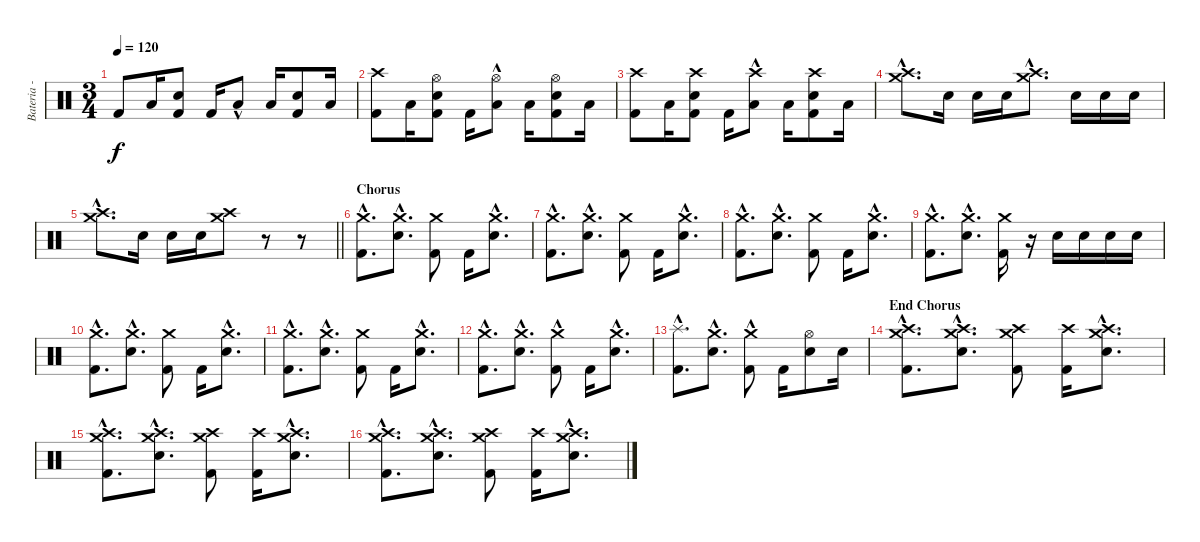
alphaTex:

\track ("Bateria - Larzon" "Bateria - ") {instrument percussion}
\staff {score}
\articulation defaults
\ts (3 4)
\tempo 120
\clef neutral
\ks c "Kick (hit) 2".8{dy f} "Low Floor Tom (hit)".16
("Kick (hit) 2" "Electric Snare (hit)").8 "Kick (hit) 2".16 "Low Floor Tom (hit)"{hac}.8 "Low Floor Tom (hit)".16 ("Kick (hit) 2" "Electric Snare (hit)").8 "Low Floor Tom (hit)".16 |
("Kick (hit) 2" "Crash high (hit)").8 "Low Floor Tom (hit)".16 ("Kick (hit) 2" "Electric Snare (hit)" "Hi-Hat (open)").8 "Kick (hit) 2".16 ("Low Floor Tom (hit)"{hac} "Hi-Hat (open)").8 "Low Floor Tom (hit)".16 ("Kick (hit) 2" "Electric Snare (hit)" "Hi-Hat (open)").8 "Low Floor Tom (hit)".16 |
("Kick (hit) 2" "Crash high (hit)").8 "Low Floor Tom (hit)".16 ("Kick (hit) 2" "Electric Snare (hit)" "Crash high (hit)").8 "Kick (hit) 2".16 ("Low Floor Tom (hit)"{hac} "Crash high (hit)").8 "Low Floor Tom (hit)".16 ("Kick (hit) 2" "Electric Snare (hit)" "Crash high (hit)").8 "Low Floor Tom (hit)".16 |
("Crash medium (hit)"{hac} "Crash high (hit)"{hac}).8{d} "Electric Snare (hit)".16 "Electric Snare (hit)".16 "Electric Snare (hit)".16 ("Crash medium (hit)"{hac} "Crash high (hit)"{hac}).8{d} "Electric Snare (hit)".16 "Electric Snare (hit)".16 "Electric Snare (hit)".16 |
\barLineRight lightlight
("Crash medium (hit)"{hac} "Crash high (hit)"{hac}).8{d} "Electric Snare (hit)".16 "Electric Snare (hit)".16 "Electric Snare (hit)".16 ("Crash medium (hit)" "Crash high (hit)").8 r.8 r.8{volume 0} |
\section ("" "Chorus")
("Kick (hit) 2"{hac} "Crash medium (hit)"{hac}).8{d volume 9} ("Electric Snare (hit)"{hac} "Crash medium (hit)"{hac}).8{d} ("Kick (hit) 2" "Crash medium (hit)").8 "Kick (hit) 2".16 ("Electric Snare (hit)"{hac} "Crash medium (hit)"{hac}).8{d} |
("Kick (hit) 2"{hac} "Crash medium (hit)"{hac}).8{d} ("Electric Snare (hit)"{hac} "Crash medium (hit)"{hac}).8{d} ("Kick (hit) 2" "Crash medium (hit)").8 "Kick (hit) 2".16 ("Electric Snare (hit)"{hac} "Crash medium (hit)"{hac}).8{d} |
("Kick (hit) 2"{hac} "Crash medium (hit)"{hac}).8{d} ("Electric Snare (hit)"{hac} "Crash medium (hit)"{hac}).8{d} ("Kick (hit) 2" "Crash medium (hit)").8 "Kick (hit) 2".16 ("Electric Snare (hit)"{hac} "Crash medium (hit)"{hac}).8{d} |
("Kick (hit) 2"{hac} "Crash medium (hit)"{hac}).8{d} ("Electric Snare (hit)"{hac} "Crash medium (hit)"{hac}).8{d} ("Kick (hit) 2" "Crash medium (hit)").16 r.16 "Electric Snare (hit)".16 "Electric Snare (hit)".16 "Electric Snare (hit)".16 "Electric Snare (hit)".16 |
("Kick (hit) 2"{hac} "Crash medium (hit)"{hac}).8{d} ("Electric Snare (hit)"{hac} "Crash medium (hit)"{hac}).8{d} ("Kick (hit) 2" "Crash medium (hit)").8 "Kick (hit) 2".16 ("Electric Snare (hit)"{hac} "Crash medium (hit)"{hac}).8{d} |
("Kick (hit) 2"{hac} "Crash medium (hit)"{hac}).8{d} ("Electric Snare (hit)"{hac} "Crash medium (hit)"{hac}).8{d} ("Kick (hit) 2" "Crash medium (hit)").8 "Kick (hit) 2".16 ("Electric Snare (hit)"{hac} "Crash medium (hit)"{hac}).8{d} |
("Kick (hit) 2" "Crash medium (hit)"{hac}).8{d} ("Electric Snare (hit)"{hac} "Crash medium (hit)"{hac}).8{d} ("Kick (hit) 2"{hac} "Crash medium (hit)").8 "Kick (hit) 2".16 ("Electric Snare (hit)"{hac} "Crash medium (hit)"{hac}).8{d} |
("Kick (hit) 2"{hac} "Splash (hit)"{hac}).8{d} ("Electric Snare (hit)"{hac} "Crash medium (hit)"{hac}).8{d} ("Kick (hit) 2"{hac} "Crash medium (hit)").8 "Kick (hit) 2".16 ("Electric Snare (hit)" "Hi-Hat (open)").8 "Electric Snare (hit)".16 |
\section ("" "End Chorus")
("Kick (hit) 2"{hac} "Crash medium (hit)"{hac} "Crash high (hit)"{hac}).8{d} ("Electric Snare (hit)"{hac} "Crash medium (hit)"{hac} "Crash high (hit)"{hac}).8{d} ("Kick (hit) 2" "Crash medium (hit)" "Crash high (hit)").8 ("Kick (hit) 2" "Crash high (hit)").16 ("Electric Snare (hit)"{hac} "Crash medium (hit)"{hac} "Crash high (hit)"{hac}).8{d} |
("Kick (hit) 2"{hac} "Crash medium (hit)"{hac} "Crash high (hit)"{hac}).8{d} ("Electric Snare (hit)"{hac} "Crash medium (hit)"{hac} "Crash high (hit)"{hac}).8{d} ("Kick (hit) 2" "Crash medium (hit)" "Crash high (hit)").8 ("Kick (hit) 2" "Crash high (hit)").16 ("Electric Snare (hit)"{hac} "Crash medium (hit)"{hac} "Crash high (hit)"{hac}).8{d} |
("Kick (hit) 2"{hac} "Crash medium (hit)"{hac} "Crash high (hit)"{hac}).8{d} ("Electric Snare (hit)"{hac} "Crash medium (hit)"{hac} "Crash high (hit)"{hac}).8{d} ("Kick (hit) 2" "Crash medium (hit)" "Crash high (hit)").8 ("Kick (hit) 2" "Crash high (hit)").16 ("Electric Snare (hit)"{hac} "Crash medium (hit)"{hac} "Crash high (hit)"{hac}).8{d}
